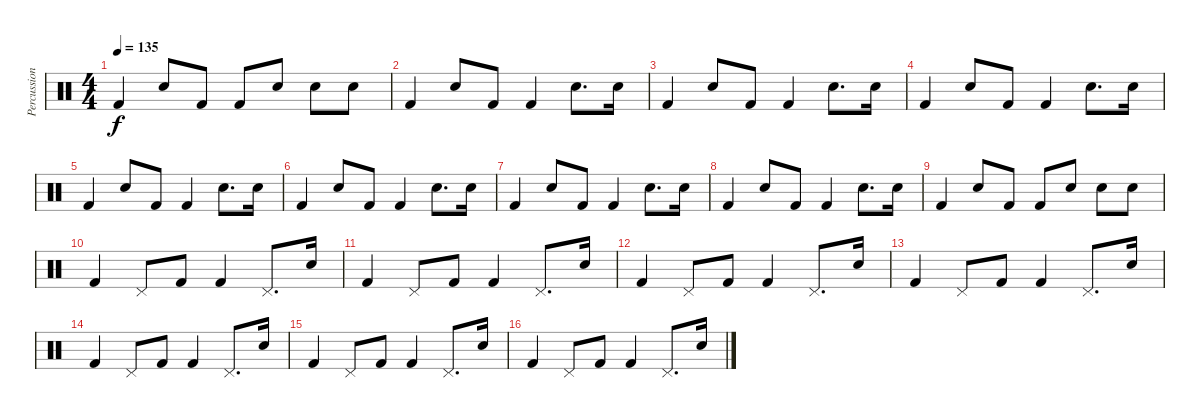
\track ("Percussion" "Percussion") {instrument percussion}
\staff {score}
\articulation defaults
\ts (4 4)
\tempo 135
\clef neutral
\ks c "Kick (hit) 2".4{dy f} "Electric Snare (hit)".8 "Kick (hit) 2".8 "Kick (hit) 2".8 "Electric Snare (hit)".8 "Electric Snare (hit)".8 "Snare (hit)".8
|
"Kick (hit) 2".4 "Electric Snare (hit)".8 "Kick (hit) 2".8 "Kick (hit) 2".4 "Electric Snare (hit)".8{d} "Snare (hit)".16 |
"Kick (hit) 2".4 "Electric Snare (hit)".8 "Kick (hit) 2".8 "Kick (hit) 2".4 "Electric Snare (hit)".8{d} "Snare (hit)".16 |
"Kick (hit) 2".4 "Electric Snare (hit)".8 "Kick (hit) 2".8 "Kick (hit) 2".4 "Electric Snare (hit)".8{d} "Snare (hit)".16 |
"Kick (hit) 2".4 "Electric Snare (hit)".8 "Kick (hit) 2".8 "Kick (hit) 2".4 "Electric Snare (hit)".8{d} "Snare (hit)".16 |
"Kick (hit) 2".4 "Electric Snare (hit)".8 "Kick (hit) 2".8 "Kick (hit) 2".4 "Electric Snare (hit)".8{d} "Snare (hit)".16 |
"Kick (hit) 2".4 "Electric Snare (hit)".8 "Kick (hit) 2".8 "Kick (hit) 2".4 "Electric Snare (hit)".8{d} "Snare (hit)".16 |
"Kick (hit) 2".4 "Electric Snare (hit)".8 "Kick (hit) 2".8 "Kick (hit) 2".4 "Electric Snare (hit)".8{d} "Snare (hit)".16 |
"Kick (hit) 2".4 "Electric Snare (hit)".8 "Kick (hit) 2".8 "Kick (hit) 2".8 "Electric Snare (hit)".8 "Electric Snare (hit)".8 "Snare (hit)".8 |
"Kick (hit) 2".4 "Pedal Hi-Hat (hit)".8 "Kick (hit) 2".8 "Kick (hit) 2".4 "Pedal Hi-Hat (hit)".8{d} "Snare (hit)".16 |
"Kick (hit) 2".4 "Pedal Hi-Hat (hit)".8 "Kick (hit) 2".8 "Kick (hit) 2".4 "Pedal Hi-Hat (hit)".8{d} "Snare (hit)".16 |
"Kick (hit) 2".4 "Pedal Hi-Hat (hit)".8 "Kick (hit) 2".8 "Kick (hit) 2".4 "Pedal Hi-Hat (hit)".8{d} "Snare (hit)".16 |
"Kick (hit) 2".4 "Pedal Hi-Hat (hit)".8 "Kick (hit) 2".8 "Kick (hit) 2".4 "Pedal Hi-Hat (hit)".8{d} "Snare (hit)".16 |
"Kick (hit) 2".4 "Pedal Hi-Hat (hit)".8 "Kick (hit) 2".8 "Kick (hit) 2".4 "Pedal Hi-Hat (hit)".8{d} "Snare (hit)".16 |
"Kick (hit) 2".4 "Pedal Hi-Hat (hit)".8 "Kick (hit) 2".8 "Kick (hit) 2".4 "Pedal Hi-Hat (hit)".8{d} "Snare (hit)".16 |
"Kick (hit) 2".4 "Pedal Hi-Hat (hit)".8 "Kick (hit) 2".8 "Kick (hit) 2".4 "Pedal Hi-Hat (hit)".8{d} "Snare (hit)".16
